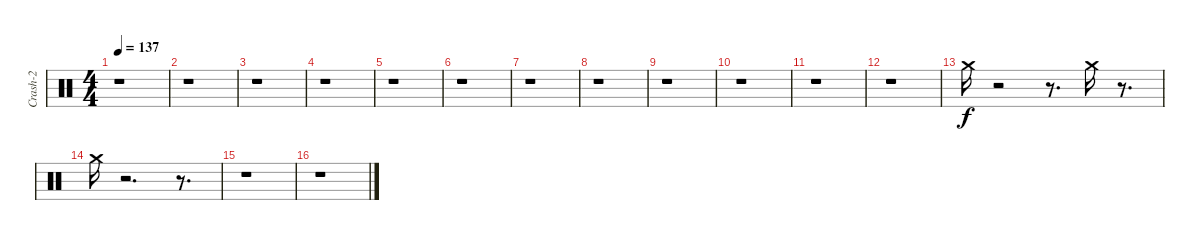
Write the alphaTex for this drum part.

\track ("Crash-2" "Crash-2") {instrument percussion}
\staff {score}
\articulation defaults
\ts (4 4)
\tempo 137
\clef neutral
\ks c
r.1{dy f} |
r.1 |
r.1 |
r.1 |
r.1 |
r.1 |
r.1 |
r.1 |
r.1 |
r.1 |
r.1 |
r.1 |
"Crash medium (hit)".16 r.2 r.8{d} "Crash medium (hit)".16 r.8{d} |
"Crash medium (hit)".16 r.2{d} r.8{d} |
r.1 |
r.1
